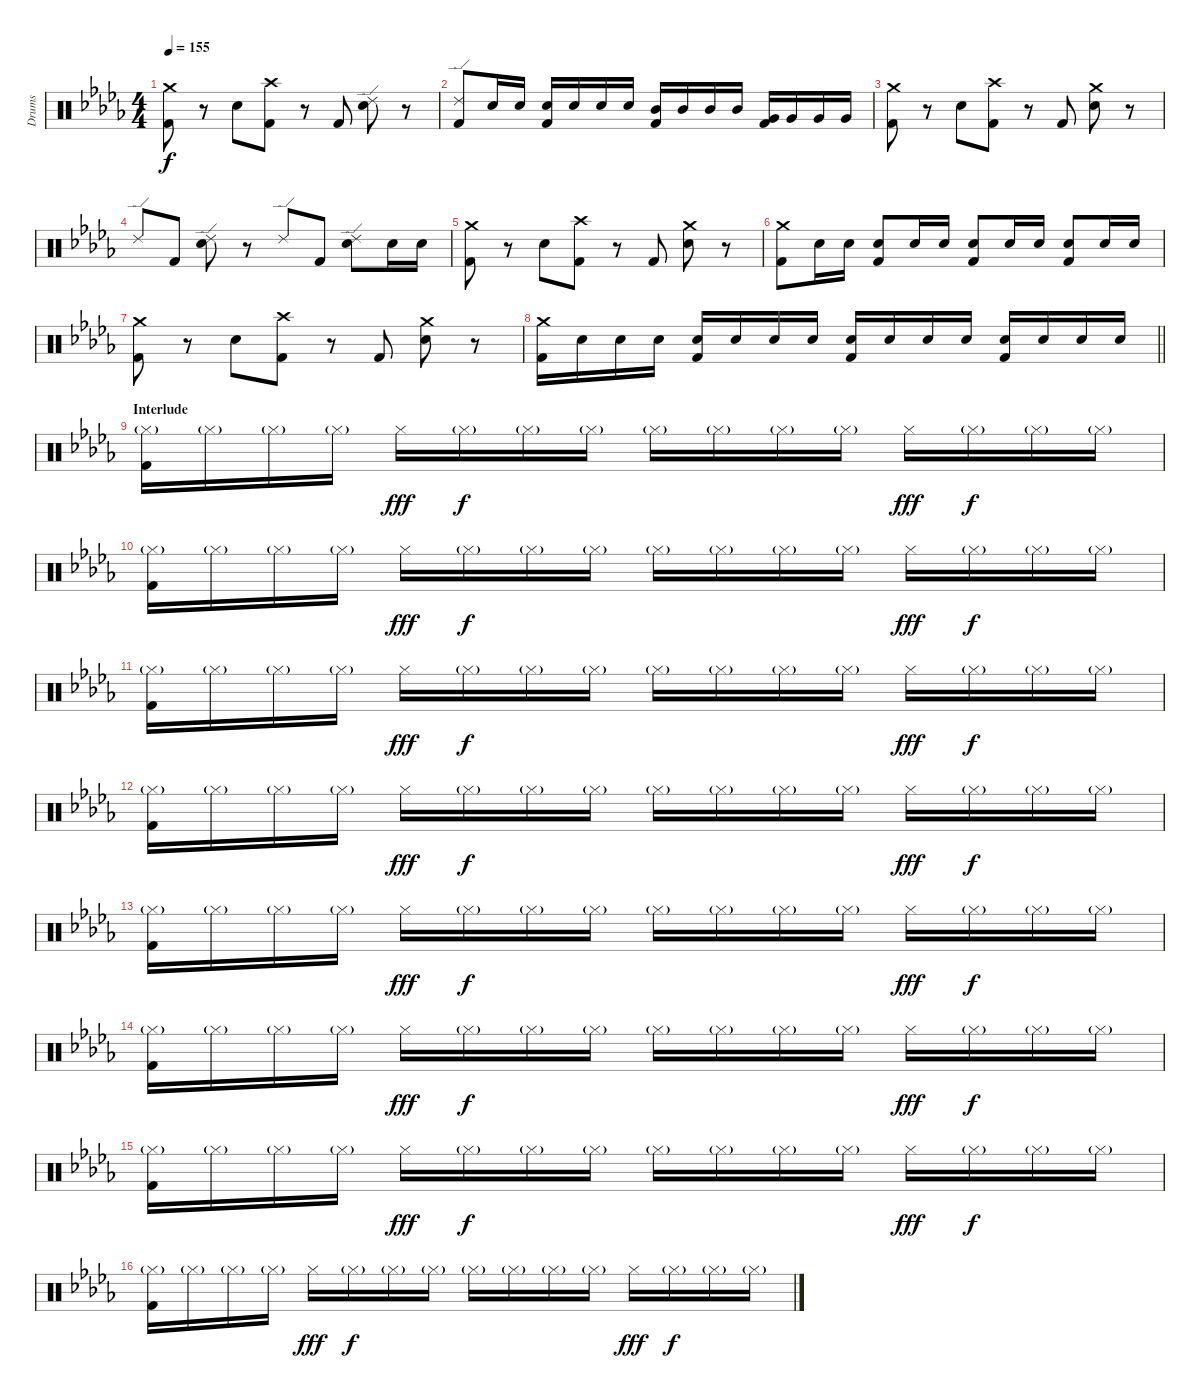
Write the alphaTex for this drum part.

\track ("Drums" "Drums") {instrument percussion}
\staff {score}
\articulation defaults
\ts (4 4)
\tempo 155
\clef neutral
\ks db
("Crash medium (hit)" "Kick (hit) 2").8{dy f} r.8 "Electric Snare (hit)".8 ("Crash high (hit)" "Kick (hit) 2").8 r.8 "Kick (hit) 2".8 ("Ride (edge) 2" "Electric Snare (hit)").8 r.8 |
("Ride (edge) 2" "Kick (hit) 2").8 "Electric Snare (hit)".16 "Electric Snare (hit)".16 ("Electric Snare (hit)" "Kick (hit) 2").16 "Electric Snare (hit)".16 "Electric Snare (hit)".16 "Electric Snare (hit)".16 ("Mid Tom (hit)" "Kick (hit) 2").16 "Mid Tom (hit)".16 "Mid Tom (hit)".16 "Mid Tom (hit)".16 ("Very Low Tom (hit)" "Kick (hit) 2").16 "Very Low Tom (hit)".16 "Very Low Tom (hit)".16 "Very Low Tom (hit)".16 |
("Crash medium (hit)" "Kick (hit) 2").8 r.8 "Electric Snare (hit)".8 ("Crash high (hit)" "Kick (hit) 2").8 r.8 "Kick (hit) 2".8 ("Crash medium (hit)" "Electric Snare (hit)").8 r.8 |
"Ride (edge) 2".8 "Kick (hit) 2".8 ("Ride (edge) 2" "Electric Snare (hit)").8 r.8 "Ride (edge) 2".8 "Kick (hit) 2".8 ("Ride (edge) 2" "Electric Snare (hit)").8 "Electric Snare (hit)".16 "Electric Snare (hit)".16 |
("Crash medium (hit)" "Kick (hit) 2").8 r.8 "Electric Snare (hit)".8 ("Crash high (hit)" "Kick (hit) 2").8 r.8 "Kick (hit) 2".8 ("Crash medium (hit)" "Electric Snare (hit)").8 r.8 |
("Crash medium (hit)" "Kick (hit) 2").8 "Electric Snare (hit)".16 "Electric Snare (hit)".16 ("Electric Snare (hit)" "Kick (hit) 2").8 "Electric Snare (hit)".16 "Electric Snare (hit)".16 ("Electric Snare (hit)" "Kick (hit) 2").8 "Electric Snare (hit)".16 "Electric Snare (hit)".16 ("Electric Snare (hit)" "Kick (hit) 2").8 "Electric Snare (hit)".16 "Electric Snare (hit)".16 |
("Crash medium (hit)" "Kick (hit) 2").8 r.8 "Electric Snare (hit)".8 ("Crash high (hit)" "Kick (hit) 2").8 r.8 "Kick (hit) 2".8 ("Crash medium (hit)" "Electric Snare (hit)").8 r.8 |
\barLineRight lightlight
("Crash medium (hit)" "Kick (hit) 2").16 "Electric Snare (hit)".16 "Electric Snare (hit)".16 "Electric Snare (hit)".16 ("Electric Snare (hit)" "Kick (hit) 2").16 "Electric Snare (hit)".16 "Electric Snare (hit)".16 "Electric Snare (hit)".16 ("Electric Snare (hit)" "Kick (hit) 2").16 "Electric Snare (hit)".16 "Electric Snare (hit)".16 "Electric Snare (hit)".16 ("Electric Snare (hit)" "Kick (hit) 2").16 "Electric Snare (hit)".16 "Electric Snare (hit)".16 "Electric Snare (hit)".16 |
\section ("" "Interlude")
("Hi-Hat (closed)"{g} "Kick (hit) 2").16 "Hi-Hat (closed)"{g}.16 "Hi-Hat (closed)"{g}.16 "Hi-Hat (closed)"{g}.16 "Hi-Hat (closed)".16{dy fff} "Hi-Hat (closed)"{g}.16{dy f} "Hi-Hat (closed)"{g}.16 "Hi-Hat (closed)"{g}.16 "Hi-Hat (closed)"{g}.16 "Hi-Hat (closed)"{g}.16 "Hi-Hat (closed)"{g}.16 "Hi-Hat (closed)"{g}.16 "Hi-Hat (closed)".16{dy fff} "Hi-Hat (closed)"{g}.16{dy f} "Hi-Hat (closed)"{g}.16 "Hi-Hat (closed)"{g}.16 |
("Hi-Hat (closed)"{g} "Kick (hit) 2").16 "Hi-Hat (closed)"{g}.16 "Hi-Hat (closed)"{g}.16 "Hi-Hat (closed)"{g}.16 "Hi-Hat (closed)".16{dy fff} "Hi-Hat (closed)"{g}.16{dy f} "Hi-Hat (closed)"{g}.16 "Hi-Hat (closed)"{g}.16 "Hi-Hat (closed)"{g}.16 "Hi-Hat (closed)"{g}.16 "Hi-Hat (closed)"{g}.16 "Hi-Hat (closed)"{g}.16 "Hi-Hat (closed)".16{dy fff} "Hi-Hat (closed)"{g}.16{dy f} "Hi-Hat (closed)"{g}.16 "Hi-Hat (closed)"{g}.16 |
("Hi-Hat (closed)"{g} "Kick (hit) 2").16 "Hi-Hat (closed)"{g}.16 "Hi-Hat (closed)"{g}.16 "Hi-Hat (closed)"{g}.16 "Hi-Hat (closed)".16{dy fff} "Hi-Hat (closed)"{g}.16{dy f} "Hi-Hat (closed)"{g}.16 "Hi-Hat (closed)"{g}.16 "Hi-Hat (closed)"{g}.16 "Hi-Hat (closed)"{g}.16 "Hi-Hat (closed)"{g}.16 "Hi-Hat (closed)"{g}.16 "Hi-Hat (closed)".16{dy fff} "Hi-Hat (closed)"{g}.16{dy f} "Hi-Hat (closed)"{g}.16 "Hi-Hat (closed)"{g}.16 |
("Hi-Hat (closed)"{g} "Kick (hit) 2").16 "Hi-Hat (closed)"{g}.16 "Hi-Hat (closed)"{g}.16 "Hi-Hat (closed)"{g}.16 "Hi-Hat (closed)".16{dy fff} "Hi-Hat (closed)"{g}.16{dy f} "Hi-Hat (closed)"{g}.16 "Hi-Hat (closed)"{g}.16 "Hi-Hat (closed)"{g}.16 "Hi-Hat (closed)"{g}.16 "Hi-Hat (closed)"{g}.16 "Hi-Hat (closed)"{g}.16 "Hi-Hat (closed)".16{dy fff} "Hi-Hat (closed)"{g}.16{dy f} "Hi-Hat (closed)"{g}.16 "Hi-Hat (closed)"{g}.16 |
("Hi-Hat (closed)"{g} "Kick (hit) 2").16 "Hi-Hat (closed)"{g}.16 "Hi-Hat (closed)"{g}.16 "Hi-Hat (closed)"{g}.16 "Hi-Hat (closed)".16{dy fff} "Hi-Hat (closed)"{g}.16{dy f} "Hi-Hat (closed)"{g}.16 "Hi-Hat (closed)"{g}.16 "Hi-Hat (closed)"{g}.16 "Hi-Hat (closed)"{g}.16 "Hi-Hat (closed)"{g}.16 "Hi-Hat (closed)"{g}.16 "Hi-Hat (closed)".16{dy fff} "Hi-Hat (closed)"{g}.16{dy f} "Hi-Hat (closed)"{g}.16 "Hi-Hat (closed)"{g}.16 |
("Hi-Hat (closed)"{g} "Kick (hit) 2").16 "Hi-Hat (closed)"{g}.16 "Hi-Hat (closed)"{g}.16 "Hi-Hat (closed)"{g}.16 "Hi-Hat (closed)".16{dy fff} "Hi-Hat (closed)"{g}.16{dy f} "Hi-Hat (closed)"{g}.16 "Hi-Hat (closed)"{g}.16 "Hi-Hat (closed)"{g}.16 "Hi-Hat (closed)"{g}.16 "Hi-Hat (closed)"{g}.16 "Hi-Hat (closed)"{g}.16 "Hi-Hat (closed)".16{dy fff} "Hi-Hat (closed)"{g}.16{dy f} "Hi-Hat (closed)"{g}.16 "Hi-Hat (closed)"{g}.16 |
("Hi-Hat (closed)"{g} "Kick (hit) 2").16 "Hi-Hat (closed)"{g}.16 "Hi-Hat (closed)"{g}.16 "Hi-Hat (closed)"{g}.16 "Hi-Hat (closed)".16{dy fff} "Hi-Hat (closed)"{g}.16{dy f} "Hi-Hat (closed)"{g}.16 "Hi-Hat (closed)"{g}.16 "Hi-Hat (closed)"{g}.16 "Hi-Hat (closed)"{g}.16 "Hi-Hat (closed)"{g}.16 "Hi-Hat (closed)"{g}.16 "Hi-Hat (closed)".16{dy fff} "Hi-Hat (closed)"{g}.16{dy f} "Hi-Hat (closed)"{g}.16 "Hi-Hat (closed)"{g}.16 |
("Hi-Hat (closed)"{g} "Kick (hit) 2").16 "Hi-Hat (closed)"{g}.16 "Hi-Hat (closed)"{g}.16 "Hi-Hat (closed)"{g}.16 "Hi-Hat (closed)".16{dy fff} "Hi-Hat (closed)"{g}.16{dy f} "Hi-Hat (closed)"{g}.16 "Hi-Hat (closed)"{g}.16 "Hi-Hat (closed)"{g}.16 "Hi-Hat (closed)"{g}.16 "Hi-Hat (closed)"{g}.16 "Hi-Hat (closed)"{g}.16 "Hi-Hat (closed)".16{dy fff} "Hi-Hat (closed)"{g}.16{dy f} "Hi-Hat (closed)"{g}.16 "Hi-Hat (closed)"{g}.16
